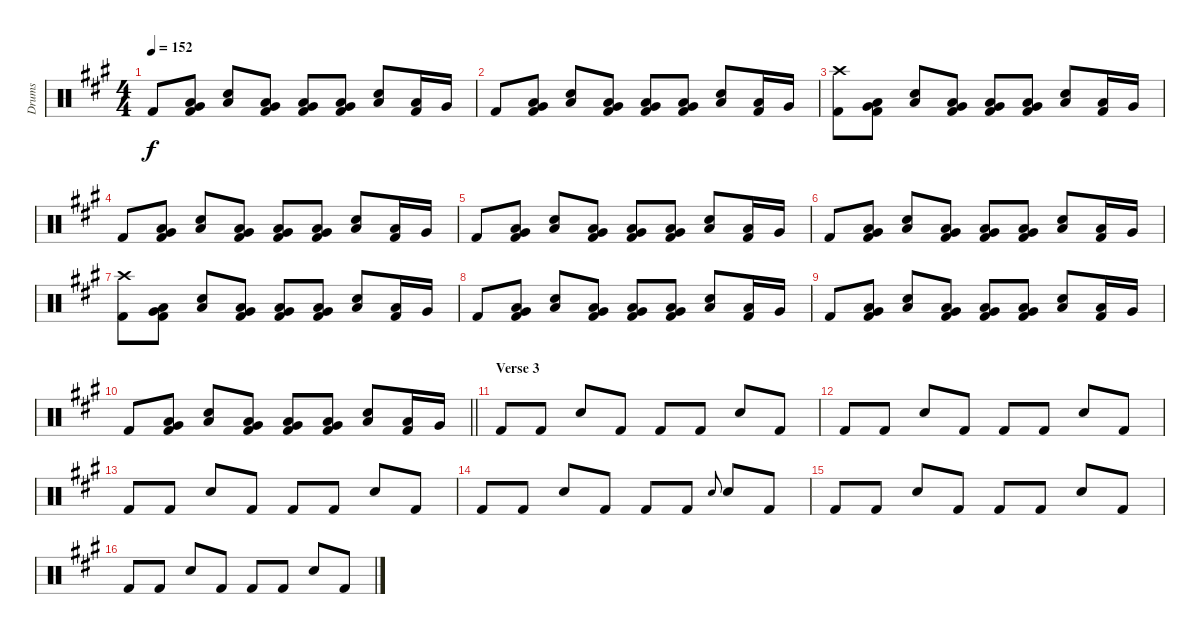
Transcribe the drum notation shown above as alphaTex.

\track ("Drums" "Drums") {instrument percussion}
\staff {score}
\articulation defaults
\ts (4 4)
\tempo 152
\clef neutral
\ks a "Kick (hit) 2".8{dy f}
("Very Low Tom (hit)" "Low Floor Tom (hit)" "Kick (hit) 2").8 ("Snare (hit) 2" "Low Tom (hit)").8 ("Very Low Tom (hit)" "Low Floor Tom (hit)" "Kick (hit) 2").8 ("Very Low Tom (hit)" "Low Floor Tom (hit)" "Kick (hit) 2").8 ("Very Low Tom (hit)" "Low Floor Tom (hit)" "Kick (hit) 2").8 ("Snare (hit) 2" "Low Tom (hit)").8 ("Low Floor Tom (hit)" "Kick (hit) 2").16 "Very Low Tom (hit)".16 |
"Kick (hit) 2".8 ("Very Low Tom (hit)" "Low Floor Tom (hit)" "Kick (hit) 2").8 ("Snare (hit) 2" "Low Tom (hit)").8 ("Very Low Tom (hit)" "Low Floor Tom (hit)" "Kick (hit) 2").8 ("Very Low Tom (hit)" "Low Floor Tom (hit)" "Kick (hit) 2").8 ("Very Low Tom (hit)" "Low Floor Tom (hit)" "Kick (hit) 2").8 ("Snare (hit) 2" "Low Tom (hit)").8 ("Low Floor Tom (hit)" "Kick (hit) 2").16 "Very Low Tom (hit)".16 |
("Crash high (hit)" "Kick (hit) 2").8 ("Very Low Tom (hit)" "Low Floor Tom (hit)" "Kick (hit) 2").8 ("Snare (hit) 2" "Low Tom (hit)").8 ("Very Low Tom (hit)" "Low Floor Tom (hit)" "Kick (hit) 2").8 ("Very Low Tom (hit)" "Low Floor Tom (hit)" "Kick (hit) 2").8 ("Very Low Tom (hit)" "Low Floor Tom (hit)" "Kick (hit) 2").8 ("Snare (hit) 2" "Low Tom (hit)").8 ("Low Floor Tom (hit)" "Kick (hit) 2").16 "Very Low Tom (hit)".16 |
"Kick (hit) 2".8 ("Very Low Tom (hit)" "Low Floor Tom (hit)" "Kick (hit) 2").8 ("Snare (hit) 2" "Low Tom (hit)").8 ("Very Low Tom (hit)" "Low Floor Tom (hit)" "Kick (hit) 2").8 ("Very Low Tom (hit)" "Low Floor Tom (hit)" "Kick (hit) 2").8 ("Very Low Tom (hit)" "Low Floor Tom (hit)" "Kick (hit) 2").8 ("Snare (hit) 2" "Low Tom (hit)").8 ("Low Floor Tom (hit)" "Kick (hit) 2").16 "Very Low Tom (hit)".16 |
"Kick (hit) 2".8 ("Very Low Tom (hit)" "Low Floor Tom (hit)" "Kick (hit) 2").8 ("Snare (hit) 2" "Low Tom (hit)").8 ("Very Low Tom (hit)" "Low Floor Tom (hit)" "Kick (hit) 2").8 ("Very Low Tom (hit)" "Low Floor Tom (hit)" "Kick (hit) 2").8 ("Very Low Tom (hit)" "Low Floor Tom (hit)" "Kick (hit) 2").8 ("Snare (hit) 2" "Low Tom (hit)").8 ("Low Floor Tom (hit)" "Kick (hit) 2").16 "Very Low Tom (hit)".16 |
"Kick (hit) 2".8 ("Very Low Tom (hit)" "Low Floor Tom (hit)" "Kick (hit) 2").8 ("Snare (hit) 2" "Low Tom (hit)").8 ("Very Low Tom (hit)" "Low Floor Tom (hit)" "Kick (hit) 2").8 ("Very Low Tom (hit)" "Low Floor Tom (hit)" "Kick (hit) 2").8 ("Very Low Tom (hit)" "Low Floor Tom (hit)" "Kick (hit) 2").8 ("Snare (hit) 2" "Low Tom (hit)").8 ("Low Floor Tom (hit)" "Kick (hit) 2").16 "Very Low Tom (hit)".16 |
("Crash high (hit)" "Kick (hit) 2").8 ("Very Low Tom (hit)" "Low Floor Tom (hit)" "Kick (hit) 2").8 ("Snare (hit) 2" "Low Tom (hit)").8 ("Very Low Tom (hit)" "Low Floor Tom (hit)" "Kick (hit) 2").8 ("Very Low Tom (hit)" "Low Floor Tom (hit)" "Kick (hit) 2").8 ("Very Low Tom (hit)" "Low Floor Tom (hit)" "Kick (hit) 2").8 ("Snare (hit) 2" "Low Tom (hit)").8 ("Low Floor Tom (hit)" "Kick (hit) 2").16 "Very Low Tom (hit)".16 |
"Kick (hit) 2".8 ("Very Low Tom (hit)" "Low Floor Tom (hit)" "Kick (hit) 2").8 ("Snare (hit) 2" "Low Tom (hit)").8 ("Very Low Tom (hit)" "Low Floor Tom (hit)" "Kick (hit) 2").8 ("Very Low Tom (hit)" "Low Floor Tom (hit)" "Kick (hit) 2").8 ("Very Low Tom (hit)" "Low Floor Tom (hit)" "Kick (hit) 2").8 ("Snare (hit) 2" "Low Tom (hit)").8 ("Low Floor Tom (hit)" "Kick (hit) 2").16 "Very Low Tom (hit)".16 |
"Kick (hit) 2".8 ("Very Low Tom (hit)" "Low Floor Tom (hit)" "Kick (hit) 2").8 ("Snare (hit) 2" "Low Tom (hit)").8 ("Very Low Tom (hit)" "Low Floor Tom (hit)" "Kick (hit) 2").8 ("Very Low Tom (hit)" "Low Floor Tom (hit)" "Kick (hit) 2").8 ("Very Low Tom (hit)" "Low Floor Tom (hit)" "Kick (hit) 2").8 ("Snare (hit) 2" "Low Tom (hit)").8 ("Low Floor Tom (hit)" "Kick (hit) 2").16 "Very Low Tom (hit)".16 |
\barLineRight lightlight "Kick (hit) 2".8
("Very Low Tom (hit)" "Low Floor Tom (hit)" "Kick (hit) 2").8 ("Snare (hit) 2" "Low Tom (hit)").8 ("Very Low Tom (hit)" "Low Floor Tom (hit)" "Kick (hit) 2").8 ("Very Low Tom (hit)" "Low Floor Tom (hit)" "Kick (hit) 2").8 ("Very Low Tom (hit)" "Low Floor Tom (hit)" "Kick (hit) 2").8 ("Snare (hit) 2" "Low Tom (hit)").8 ("Low Floor Tom (hit)" "Kick (hit) 2").16 "Very Low Tom (hit)".16 |
\section ("" "Verse 3")
"Kick (hit) 2".8 "Kick (hit) 2".8 "Snare (hit) 2".8 "Kick (hit) 2".8 "Kick (hit) 2".8 "Kick (hit) 2".8 "Snare (hit) 2".8 "Kick (hit) 2".8 |
"Kick (hit) 2".8 "Kick (hit) 2".8 "Snare (hit) 2".8 "Kick (hit) 2".8 "Kick (hit) 2".8 "Kick (hit) 2".8 "Snare (hit) 2".8 "Kick (hit) 2".8 |
"Kick (hit) 2".8 "Kick (hit) 2".8 "Snare (hit) 2".8 "Kick (hit) 2".8 "Kick (hit) 2".8 "Kick (hit) 2".8 "Snare (hit) 2".8 "Kick (hit) 2".8 |
"Kick (hit) 2".8 "Kick (hit) 2".8 "Snare (hit) 2".8 "Kick (hit) 2".8 "Kick (hit) 2".8 "Kick (hit) 2".8 "Snare (hit) 2".8{gr onbeat} "Snare (hit) 2".8 "Kick (hit) 2".8 |
"Kick (hit) 2".8 "Kick (hit) 2".8 "Snare (hit) 2".8 "Kick (hit) 2".8 "Kick (hit) 2".8 "Kick (hit) 2".8 "Snare (hit) 2".8 "Kick (hit) 2".8 |
"Kick (hit) 2".8 "Kick (hit) 2".8 "Snare (hit) 2".8 "Kick (hit) 2".8 "Kick (hit) 2".8 "Kick (hit) 2".8 "Snare (hit) 2".8 "Kick (hit) 2".8
